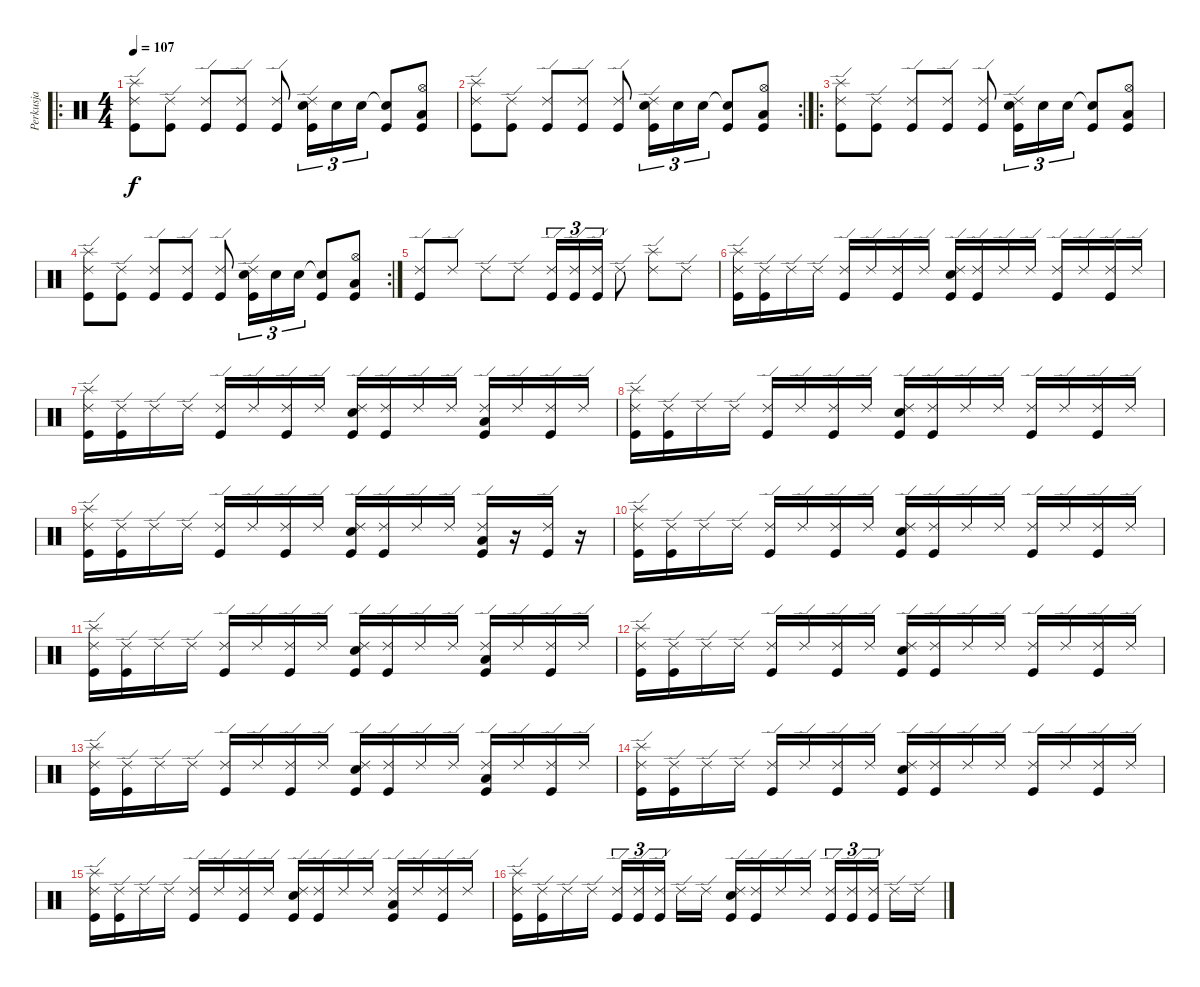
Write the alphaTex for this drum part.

\track ("Perkusja" "Perkusja") {instrument percussion}
\staff {score}
\articulation defaults
\ro
\ts (4 4)
\tempo 107
\clef neutral
\ks c
("Splash (hit)" "Ride (edge) 2" "Kick (hit)").8{dy f} ("Ride (edge) 2" "Kick (hit)").8 ("Ride (edge) 2" "Kick (hit)").8 ("Ride (edge) 2" "Kick (hit)").8 ("Ride (edge) 2" "Kick (hit)").8 ("Ride (edge) 2" "Electric Snare (hit)" "Kick (hit)").16{tu (3 2)} "Electric Snare (hit)".16{tu (3 2)} "Electric Snare (hit)".16{tu (3 2)} ("Snare (hit)"{t} "Kick (hit)").8 ("Hi-Hat (open)" "Low Floor Tom (hit)" "Kick (hit)").8 |
\rc 2
("Splash (hit)" "Ride (edge) 2" "Kick (hit)").8 ("Ride (edge) 2" "Kick (hit)").8 ("Ride (edge) 2" "Kick (hit)").8 ("Ride (edge) 2" "Kick (hit)").8 ("Ride (edge) 2" "Kick (hit)").8 ("Ride (edge) 2" "Electric Snare (hit)" "Kick (hit)").16{tu (3 2)} "Electric Snare (hit)".16{tu (3 2)} "Electric Snare (hit)".16{tu (3 2)} ("Snare (hit)"{t} "Kick (hit)").8 ("Hi-Hat (open)" "Low Floor Tom (hit)" "Kick (hit)").8 |
\ro
("Splash (hit)" "Ride (edge) 2" "Kick (hit)").8 ("Ride (edge) 2" "Kick (hit)").8 ("Ride (edge) 2" "Kick (hit)").8 ("Ride (edge) 2" "Kick (hit)").8 ("Ride (edge) 2" "Kick (hit)").8 ("Ride (edge) 2" "Electric Snare (hit)" "Kick (hit)").16{tu (3 2)} "Electric Snare (hit)".16{tu (3 2)} "Electric Snare (hit)".16{tu (3 2)} ("Snare (hit)"{t} "Kick (hit)").8 ("Hi-Hat (open)" "Low Floor Tom (hit)" "Kick (hit)").8 |
\rc 2
("Splash (hit)" "Ride (edge) 2" "Kick (hit)").8 ("Ride (edge) 2" "Kick (hit)").8 ("Ride (edge) 2" "Kick (hit)").8 ("Ride (edge) 2" "Kick (hit)").8 ("Ride (edge) 2" "Kick (hit)").8 ("Ride (edge) 2" "Electric Snare (hit)" "Kick (hit)").16{tu (3 2)} "Electric Snare (hit)".16{tu (3 2)} "Electric Snare (hit)".16{tu (3 2)} ("Snare (hit)"{t} "Kick (hit)").8 ("Hi-Hat (open)" "Low Floor Tom (hit)" "Kick (hit)").8 |
("Ride (edge) 2" "Kick (hit)").8 "Ride (edge) 2".8 "Ride (edge) 2".8 "Ride (edge) 2".8 ("Ride (edge) 2" "Kick (hit)").16{tu (3 2)} ("Ride (edge) 2" "Kick (hit)").16{tu (3 2)} ("Ride (edge) 2" "Kick (hit)").16{tu (3 2)} "Ride (edge) 2".8 ("Ride (edge) 2" "Splash (hit)").8 "Ride (edge) 2".8 |
("Ride (edge) 2" "Splash (hit)" "Kick (hit)").16 ("Ride (edge) 2" "Kick (hit)").16 "Ride (edge) 2".16 "Ride (edge) 2".16 ("Ride (edge) 2" "Kick (hit)").16 "Ride (edge) 2".16 ("Ride (edge) 2" "Kick (hit)").16 "Ride (edge) 2".16 ("Ride (edge) 2" "Electric Snare (hit)" "Kick (hit)").16 ("Ride (edge) 2" "Kick (hit)").16 "Ride (edge) 2".16 "Ride (edge) 2".16 ("Ride (edge) 2" "Kick (hit)").16 "Ride (edge) 2".16 ("Ride (edge) 2" "Kick (hit)").16 "Ride (edge) 2".16 |
("Ride (edge) 2" "Splash (hit)" "Kick (hit)").16 ("Ride (edge) 2" "Kick (hit)").16 "Ride (edge) 2".16 "Ride (edge) 2".16 ("Ride (edge) 2" "Kick (hit)").16 "Ride (edge) 2".16 ("Ride (edge) 2" "Kick (hit)").16 "Ride (edge) 2".16 ("Ride (edge) 2" "Electric Snare (hit)" "Kick (hit)").16 ("Ride (edge) 2" "Kick (hit)").16 "Ride (edge) 2".16 "Ride (edge) 2".16 ("Ride (edge) 2" "Low Floor Tom (hit)" "Kick (hit)").16 "Ride (edge) 2".16 ("Ride (edge) 2" "Kick (hit)").16 "Ride (edge) 2".16 |
("Ride (edge) 2" "Splash (hit)" "Kick (hit)").16 ("Ride (edge) 2" "Kick (hit)").16 "Ride (edge) 2".16 "Ride (edge) 2".16 ("Ride (edge) 2" "Kick (hit)").16 "Ride (edge) 2".16 ("Ride (edge) 2" "Kick (hit)").16 "Ride (edge) 2".16 ("Ride (edge) 2" "Electric Snare (hit)" "Kick (hit)").16 ("Ride (edge) 2" "Kick (hit)").16 "Ride (edge) 2".16 "Ride (edge) 2".16 ("Ride (edge) 2" "Kick (hit)").16 "Ride (edge) 2".16 ("Ride (edge) 2" "Kick (hit)").16 "Ride (edge) 2".16 |
("Ride (edge) 2" "Splash (hit)" "Kick (hit)").16 ("Ride (edge) 2" "Kick (hit)").16 "Ride (edge) 2".16 "Ride (edge) 2".16 ("Ride (edge) 2" "Kick (hit)").16 "Ride (edge) 2".16 ("Ride (edge) 2" "Kick (hit)").16 "Ride (edge) 2".16 ("Ride (edge) 2" "Electric Snare (hit)" "Kick (hit)").16 ("Ride (edge) 2" "Kick (hit)").16 "Ride (edge) 2".16 "Ride (edge) 2".16 ("Ride (edge) 2" "Low Floor Tom (hit)" "Kick (hit)").16 r.16 ("Ride (edge) 2" "Kick (hit)").16 r.16 |
("Ride (edge) 2" "Splash (hit)" "Kick (hit)").16 ("Ride (edge) 2" "Kick (hit)").16 "Ride (edge) 2".16 "Ride (edge) 2".16 ("Ride (edge) 2" "Kick (hit)").16 "Ride (edge) 2".16 ("Ride (edge) 2" "Kick (hit)").16 "Ride (edge) 2".16 ("Ride (edge) 2" "Electric Snare (hit)" "Kick (hit)").16 ("Ride (edge) 2" "Kick (hit)").16 "Ride (edge) 2".16 "Ride (edge) 2".16 ("Ride (edge) 2" "Kick (hit)").16 "Ride (edge) 2".16 ("Ride (edge) 2" "Kick (hit)").16 "Ride (edge) 2".16 |
("Ride (edge) 2" "Splash (hit)" "Kick (hit)").16 ("Ride (edge) 2" "Kick (hit)").16 "Ride (edge) 2".16 "Ride (edge) 2".16 ("Ride (edge) 2" "Kick (hit)").16 "Ride (edge) 2".16 ("Ride (edge) 2" "Kick (hit)").16 "Ride (edge) 2".16 ("Ride (edge) 2" "Electric Snare (hit)" "Kick (hit)").16 ("Ride (edge) 2" "Kick (hit)").16 "Ride (edge) 2".16 "Ride (edge) 2".16 ("Ride (edge) 2" "Low Floor Tom (hit)" "Kick (hit)").16 "Ride (edge) 2".16 ("Ride (edge) 2" "Kick (hit)").16 "Ride (edge) 2".16 |
("Ride (edge) 2" "Splash (hit)" "Kick (hit)").16 ("Ride (edge) 2" "Kick (hit)").16 "Ride (edge) 2".16 "Ride (edge) 2".16 ("Ride (edge) 2" "Kick (hit)").16 "Ride (edge) 2".16 ("Ride (edge) 2" "Kick (hit)").16 "Ride (edge) 2".16 ("Ride (edge) 2" "Electric Snare (hit)" "Kick (hit)").16 ("Ride (edge) 2" "Kick (hit)").16 "Ride (edge) 2".16 "Ride (edge) 2".16 ("Ride (edge) 2" "Kick (hit)").16 "Ride (edge) 2".16 ("Ride (edge) 2" "Kick (hit)").16 "Ride (edge) 2".16 |
("Ride (edge) 2" "Splash (hit)" "Kick (hit)").16 ("Ride (edge) 2" "Kick (hit)").16 "Ride (edge) 2".16 "Ride (edge) 2".16 ("Ride (edge) 2" "Kick (hit)").16 "Ride (edge) 2".16 ("Ride (edge) 2" "Kick (hit)").16 "Ride (edge) 2".16 ("Ride (edge) 2" "Electric Snare (hit)" "Kick (hit)").16 ("Ride (edge) 2" "Kick (hit)").16 "Ride (edge) 2".16 "Ride (edge) 2".16 ("Ride (edge) 2" "Low Floor Tom (hit)" "Kick (hit)").16 "Ride (edge) 2".16 ("Ride (edge) 2" "Kick (hit)").16 "Ride (edge) 2".16 |
("Ride (edge) 2" "Splash (hit)" "Kick (hit)").16 ("Ride (edge) 2" "Kick (hit)").16 "Ride (edge) 2".16 "Ride (edge) 2".16 ("Ride (edge) 2" "Kick (hit)").16 "Ride (edge) 2".16 ("Ride (edge) 2" "Kick (hit)").16 "Ride (edge) 2".16 ("Ride (edge) 2" "Electric Snare (hit)" "Kick (hit)").16 ("Ride (edge) 2" "Kick (hit)").16 "Ride (edge) 2".16 "Ride (edge) 2".16 ("Ride (edge) 2" "Kick (hit)").16 "Ride (edge) 2".16 ("Ride (edge) 2" "Kick (hit)").16 "Ride (edge) 2".16 |
("Ride (edge) 2" "Splash (hit)" "Kick (hit)").16 ("Ride (edge) 2" "Kick (hit)").16 "Ride (edge) 2".16 "Ride (edge) 2".16 ("Ride (edge) 2" "Kick (hit)").16 "Ride (edge) 2".16 ("Ride (edge) 2" "Kick (hit)").16 "Ride (edge) 2".16 ("Ride (edge) 2" "Electric Snare (hit)" "Kick (hit)").16 ("Ride (edge) 2" "Kick (hit)").16 "Ride (edge) 2".16 "Ride (edge) 2".16 ("Ride (edge) 2" "Low Floor Tom (hit)" "Kick (hit)").16 "Ride (edge) 2".16 ("Ride (edge) 2" "Kick (hit)").16 "Ride (edge) 2".16 |
("Ride (edge) 2" "Splash (hit)" "Kick (hit)").16 ("Ride (edge) 2" "Kick (hit)").16 "Ride (edge) 2".16 "Ride (edge) 2".16 ("Ride (edge) 2" "Kick (hit)").16{tu (3 2)} ("Ride (edge) 2" "Kick (hit)").16{tu (3 2)} ("Ride (edge) 2" "Kick (hit)").16{tu (3 2)} "Ride (edge) 2".16 "Ride (edge) 2".16 ("Ride (edge) 2" "Electric Snare (hit)" "Kick (hit)").16 ("Ride (edge) 2" "Kick (hit)").16 "Ride (edge) 2".16 "Ride (edge) 2".16 ("Ride (edge) 2" "Kick (hit)").16{tu (3 2)} ("Ride (edge) 2" "Kick (hit)").16{tu (3 2)} ("Ride (edge) 2" "Kick (hit)").16{tu (3 2)} "Ride (edge) 2".16 "Ride (edge) 2".16
